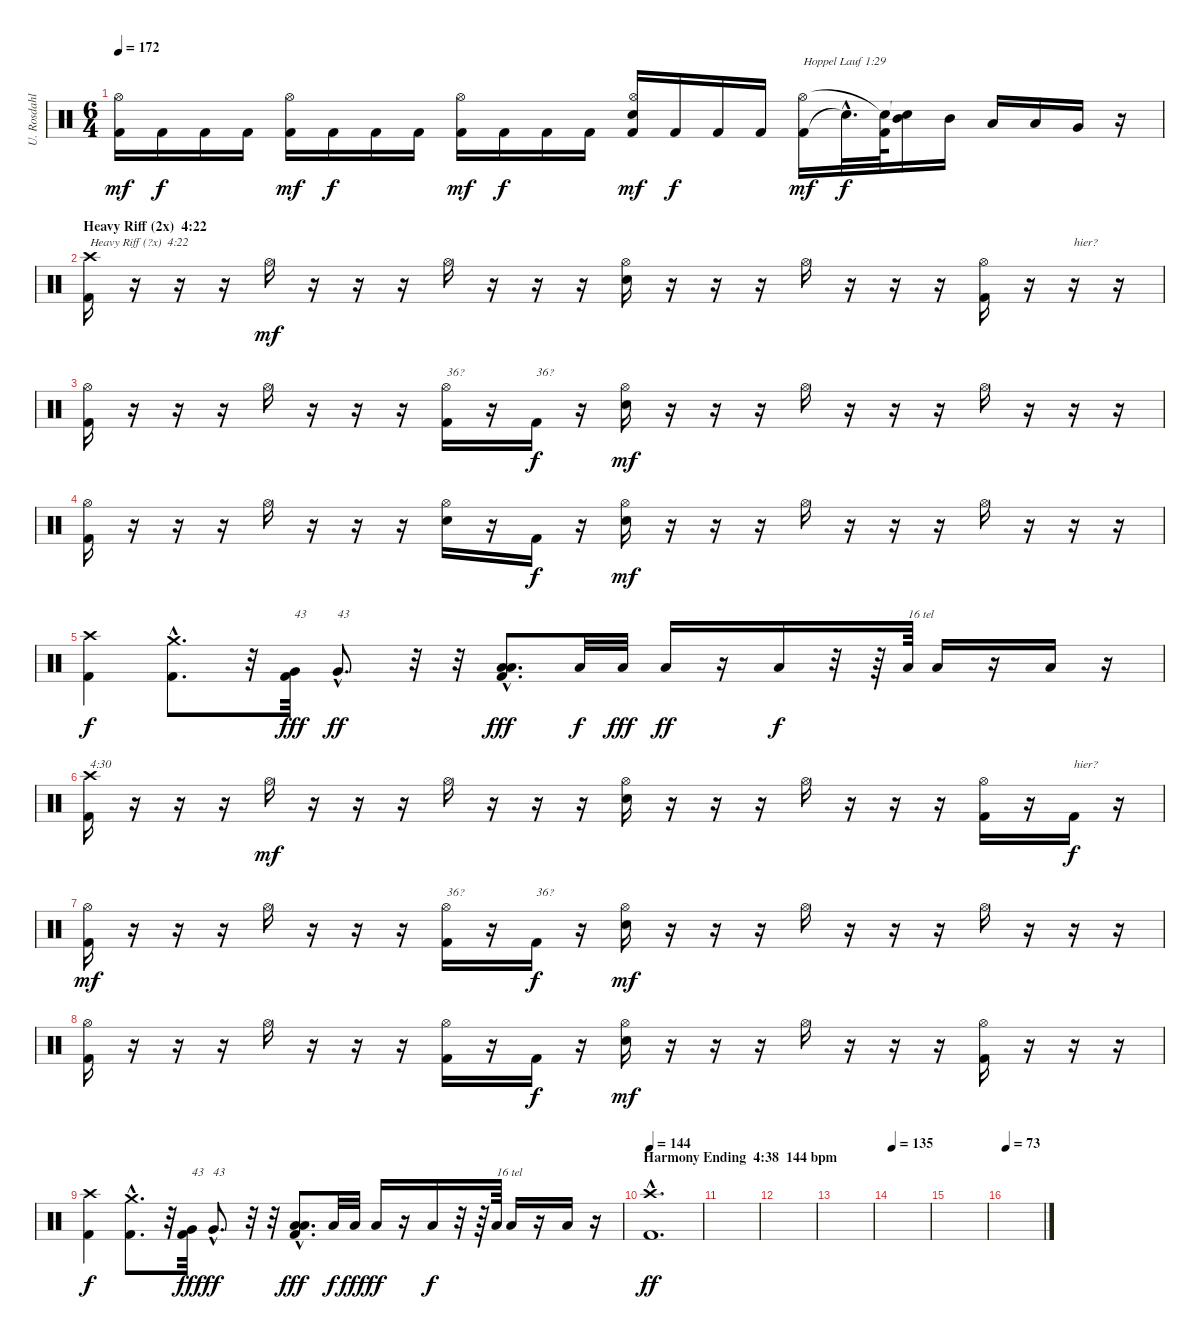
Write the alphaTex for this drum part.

\track ("U. Rosdahl" "U. Rosdahl") {instrument percussion}
\staff {score}
\articulation defaults
\ts (6 4)
\tempo 172
\clef neutral
\ks c
("Kick (hit) 2" "Hi-Hat (open)").16{dy mf} "Kick (hit) 2".16{dy f} "Kick (hit) 2".16 "Kick (hit) 2".16 ("Kick (hit) 2" "Hi-Hat (open)").16{dy mf} "Kick (hit) 2".16{dy f} "Kick (hit) 2".16 "Kick (hit) 2".16 ("Kick (hit) 2" "Hi-Hat (open)").16{dy mf} "Kick (hit) 2".16{dy f} "Kick (hit) 2".16 "Kick (hit) 2".16 ("Kick (hit) 2" "Electric Snare (hit)" "Hi-Hat (open)").16{dy mf} "Kick (hit) 2".16{dy f} "Kick (hit) 2".16 "Kick (hit) 2".16 ("Kick (hit) 2" "Hi-Hat (open)").16{txt "Hoppel Lauf 1:29" dy mf} "Snare (hit)"{hac t}.32{d dy f} ("Kick (hit) 2" "Snare (hit)"{t}).64 ("Mid Tom (hit)" "Snare (hit)"{t}).16 "Mid Tom (hit)".16 "Low Tom (hit)".16 "Low Tom (hit)".16 "Very Low Tom (hit)".16 r.16 |
\section ("" "Heavy Riff (2x)  4:22")
("Kick (hit) 2" "Crash high (hit)").16{txt "Heavy Riff (?x)  4:22"} r.16 r.16 r.16 "Hi-Hat (open)".16{dy mf} r.16 r.16 r.16 "Hi-Hat (open)".16 r.16 r.16 r.16 ("Electric Snare (hit)" "Hi-Hat (open)").16 r.16 r.16 r.16 "Hi-Hat (open)".16 r.16 r.16 r.16 ("Kick (hit) 2" "Hi-Hat (open)").16 r.16 r.16{txt "hier?"} r.16 |
("Kick (hit) 2" "Hi-Hat (open)").16 r.16 r.16 r.16 "Hi-Hat (open)".16 r.16 r.16 r.16 ("Kick (hit) 2" "Hi-Hat (open)").16{txt "36?"} r.16 "Kick (hit) 2".16{txt "36?" dy f} r.16 ("Electric Snare (hit)" "Hi-Hat (open)").16{dy mf} r.16 r.16 r.16 "Hi-Hat (open)".16 r.16 r.16 r.16 "Hi-Hat (open)".16 r.16 r.16 r.16 |
("Kick (hit) 2" "Hi-Hat (open)").16 r.16 r.16 r.16 "Hi-Hat (open)".16 r.16 r.16 r.16 ("Electric Snare (hit)" "Hi-Hat (open)").16 r.16 "Kick (hit) 2".16{dy f} r.16 ("Electric Snare (hit)" "Hi-Hat (open)").16{dy mf} r.16 r.16 r.16 "Hi-Hat (open)".16 r.16 r.16 r.16 "Hi-Hat (open)".16 r.16 r.16 r.16 |
("Kick (hit) 2" "Crash high (hit)").4{dy f} ("Kick (hit) 2"{hac} "Crash medium (hit)"{hac}).8{d} r.32 ("Kick (hit) 2" "Very Low Tom (hit)").32{txt "43" dy fff} "Very Low Tom (hit)"{hac}.8{d txt "43" dy ff} r.32 r.32 ("Kick (hit) 2"{hac} "Low Tom (hit)"{hac} "Low Tom (hit)"{hac}).8{d dy fff} "Low Tom (hit)".32{dy f} "Low Tom (hit)".32{dy fff} "Low Tom (hit)".16{dy ff} r.16 "Low Tom (hit)".16{dy f} r.32 r.64 "Low Tom (hit)".64{txt "16 tel"} "Low Tom (hit)".16 r.16 "Low Tom (hit)".16 r.16 |
("Kick (hit) 2" "Crash high (hit)").16{txt "4:30"} r.16 r.16 r.16 "Hi-Hat (open)".16{dy mf} r.16 r.16 r.16 "Hi-Hat (open)".16 r.16 r.16 r.16 ("Electric Snare (hit)" "Hi-Hat (open)").16 r.16 r.16 r.16 "Hi-Hat (open)".16 r.16 r.16 r.16 ("Kick (hit) 2" "Hi-Hat (open)").16 r.16 "Kick (hit) 2".16{txt "hier?" dy f} r.16 |
("Kick (hit) 2" "Hi-Hat (open)").16{dy mf} r.16 r.16 r.16 "Hi-Hat (open)".16 r.16 r.16 r.16 ("Kick (hit) 2" "Hi-Hat (open)").16{txt "36?"} r.16 "Kick (hit) 2".16{txt "36?" dy f} r.16 ("Electric Snare (hit)" "Hi-Hat (open)").16{dy mf} r.16 r.16 r.16 "Hi-Hat (open)".16 r.16 r.16 r.16 "Hi-Hat (open)".16 r.16 r.16 r.16 |
("Kick (hit) 2" "Hi-Hat (open)").16 r.16 r.16 r.16 "Hi-Hat (open)".16 r.16 r.16 r.16 ("Kick (hit) 2" "Hi-Hat (open)").16 r.16 "Kick (hit) 2".16{dy f} r.16 ("Electric Snare (hit)" "Hi-Hat (open)").16{dy mf} r.16 r.16 r.16 "Hi-Hat (open)".16 r.16 r.16 r.16 ("Kick (hit) 2" "Hi-Hat (open)").16 r.16 r.16 r.16 |
("Kick (hit) 2" "Crash high (hit)").4{dy f} ("Kick (hit) 2"{hac} "Crash medium (hit)"{hac}).8{d} r.32 ("Kick (hit) 2" "Very Low Tom (hit)").32{txt "43" dy fff} "Very Low Tom (hit)"{hac}.8{d txt "43" dy ff} r.32 r.32 ("Kick (hit) 2"{hac} "Low Tom (hit)"{hac} "Low Tom (hit)"{hac}).8{d dy fff} "Low Tom (hit)".32{dy f} "Low Tom (hit)".32{dy fff} "Low Tom (hit)".16{dy ff} r.16 "Low Tom (hit)".16{dy f} r.32 r.64 "Low Tom (hit)".64{txt "16 tel"} "Low Tom (hit)".16 r.16 "Low Tom (hit)".16 r.16 |
\section ("" "Harmony Ending  4:38  144 bpm")
\tempo 144
("Kick (hit) 2"{hac} "Crash high (hit)"{hac}).1{d dy ff} |
|
|
|
\tempo 135
|
|
\tempo 73
